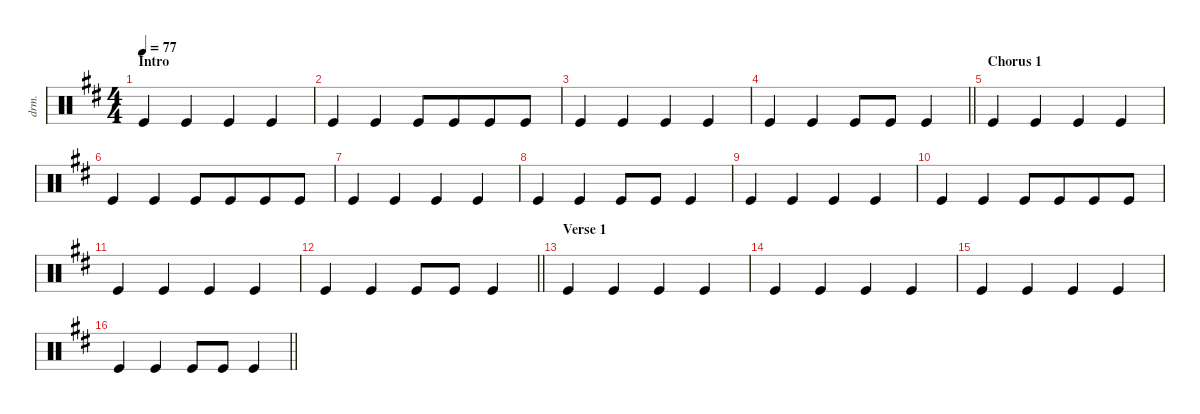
\defaultSystemsLayout 4
\hideDynamics
\bracketExtendMode nobrackets
\otherSystemsTrackNameOrientation horizontal
\track ("Drums" "drm.") {defaultSystemsLayout 8 instrument percussion}
\staff {score}
\articulation defaults
\ts (4 4)
\beaming (8 4 4)
\section ("" "Intro")
\tempo 77
\clef neutral
\ks bminor "Kick (hit)"{acc forcenatural}.4{dy mf beam Up} "Kick (hit)"{acc forcenatural}.4{beam Up} "Kick (hit)"{acc forcenatural}.4{beam Up} "Kick (hit)"{acc forcenatural}.4{beam Up}
|
"Kick (hit)"{acc forcenatural}.4{beam Up} "Kick (hit)"{acc forcenatural}.4{beam Up} "Kick (hit)"{acc forcenatural}.8{beam Up} "Kick (hit)"{acc forcenatural}.8{beam Up} "Kick (hit)"{acc forcenatural}.8{beam Up} "Kick (hit)"{acc forcenatural}.8{beam Up} |
"Kick (hit)"{acc forcenatural}.4{beam Up} "Kick (hit)"{acc forcenatural}.4{beam Up} "Kick (hit)"{acc forcenatural}.4{beam Up} "Kick (hit)"{acc forcenatural}.4{beam Up} |
\barLineRight lightlight "Kick (hit)"{acc forcenatural}.4{beam Up} "Kick (hit)"{acc forcenatural}.4{beam Up} "Kick (hit)"{acc forcenatural}.8{beam Up} "Kick (hit)"{acc forcenatural}.8{beam Up} "Kick (hit)"{acc forcenatural}.4{beam Up}
|
\section ("" "Chorus 1")
"Kick (hit)"{acc forcenatural}.4{beam Up} "Kick (hit)"{acc forcenatural}.4{beam Up} "Kick (hit)"{acc forcenatural}.4{beam Up} "Kick (hit)"{acc forcenatural}.4{beam Up} |
"Kick (hit)"{acc forcenatural}.4{beam Up} "Kick (hit)"{acc forcenatural}.4{beam Up} "Kick (hit)"{acc forcenatural}.8{beam Up} "Kick (hit)"{acc forcenatural}.8{beam Up} "Kick (hit)"{acc forcenatural}.8{beam Up} "Kick (hit)"{acc forcenatural}.8{beam Up} |
"Kick (hit)"{acc forcenatural}.4{beam Up} "Kick (hit)"{acc forcenatural}.4{beam Up} "Kick (hit)"{acc forcenatural}.4{beam Up} "Kick (hit)"{acc forcenatural}.4{beam Up} |
"Kick (hit)"{acc forcenatural}.4{beam Up} "Kick (hit)"{acc forcenatural}.4{beam Up} "Kick (hit)"{acc forcenatural}.8{beam Up} "Kick (hit)"{acc forcenatural}.8{beam Up} "Kick (hit)"{acc forcenatural}.4{beam Up} |
"Kick (hit)"{acc forcenatural}.4{beam Up} "Kick (hit)"{acc forcenatural}.4{beam Up} "Kick (hit)"{acc forcenatural}.4{beam Up} "Kick (hit)"{acc forcenatural}.4{beam Up} |
"Kick (hit)"{acc forcenatural}.4{beam Up} "Kick (hit)"{acc forcenatural}.4{beam Up} "Kick (hit)"{acc forcenatural}.8{beam Up} "Kick (hit)"{acc forcenatural}.8{beam Up} "Kick (hit)"{acc forcenatural}.8{beam Up} "Kick (hit)"{acc forcenatural}.8{beam Up} |
"Kick (hit)"{acc forcenatural}.4{beam Up} "Kick (hit)"{acc forcenatural}.4{beam Up} "Kick (hit)"{acc forcenatural}.4{beam Up} "Kick (hit)"{acc forcenatural}.4{beam Up} |
\barLineRight lightlight "Kick (hit)"{acc forcenatural}.4{beam Up} "Kick (hit)"{acc forcenatural}.4{beam Up} "Kick (hit)"{acc forcenatural}.8{beam Up} "Kick (hit)"{acc forcenatural}.8{beam Up} "Kick (hit)"{acc forcenatural}.4{beam Up}
|
\section ("" "Verse 1")
"Kick (hit)"{acc forcenatural}.4{beam Up} "Kick (hit)"{acc forcenatural}.4{beam Up} "Kick (hit)"{acc forcenatural}.4{beam Up} "Kick (hit)"{acc forcenatural}.4{beam Up} |
"Kick (hit)"{acc forcenatural}.4{beam Up} "Kick (hit)"{acc forcenatural}.4{beam Up} "Kick (hit)"{acc forcenatural}.4{beam Up} "Kick (hit)"{acc forcenatural}.4{beam Up} |
"Kick (hit)"{acc forcenatural}.4{beam Up} "Kick (hit)"{acc forcenatural}.4{beam Up} "Kick (hit)"{acc forcenatural}.4{beam Up} "Kick (hit)"{acc forcenatural}.4{beam Up} |
\barLineRight lightlight "Kick (hit)"{acc forcenatural}.4{beam Up} "Kick (hit)"{acc forcenatural}.4{beam Up} "Kick (hit)"{acc forcenatural}.8{beam Up} "Kick (hit)"{acc forcenatural}.8{beam Up} "Kick (hit)"{acc forcenatural}.4{beam Up}
